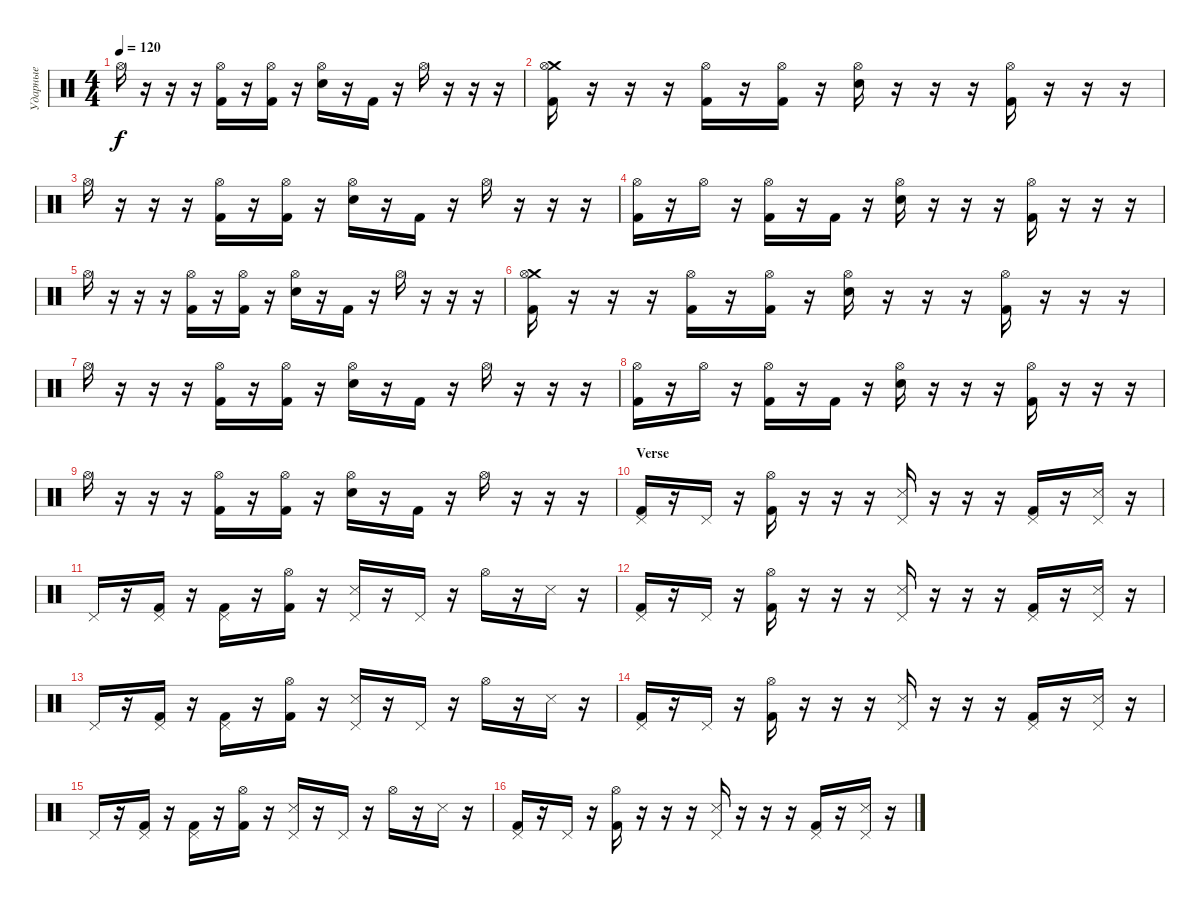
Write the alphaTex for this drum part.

\track ("Ударные" "Ударные") {instrument percussion}
\staff {score}
\articulation defaults
\ts (4 4)
\tempo 120
\clef neutral
\ks c "Hi-Hat (open)".16{dy f}
r.16 r.16 r.16 ("Hi-Hat (open)" "Kick (hit) 2").16 r.16 ("Hi-Hat (open)" "Kick (hit) 2").16 r.16 ("Hi-Hat (open)" "Electric Snare (hit)").16 r.16 "Kick (hit) 2".16 r.16 "Hi-Hat (open)".16 r.16 r.16 r.16 |
("Crash medium (hit)" "Hi-Hat (open)" "Kick (hit) 2").16 r.16 r.16 r.16 ("Hi-Hat (open)" "Kick (hit) 2").16 r.16 ("Hi-Hat (open)" "Kick (hit) 2").16 r.16 ("Hi-Hat (open)" "Electric Snare (hit)").16 r.16 r.16 r.16 ("Hi-Hat (open)" "Kick (hit) 2").16 r.16 r.16 r.16 |
"Hi-Hat (open)".16 r.16 r.16 r.16 ("Hi-Hat (open)" "Kick (hit) 2").16 r.16 ("Hi-Hat (open)" "Kick (hit) 2").16 r.16 ("Hi-Hat (open)" "Electric Snare (hit)").16 r.16 "Kick (hit) 2".16 r.16 "Hi-Hat (open)".16 r.16 r.16 r.16 |
("Hi-Hat (open)" "Kick (hit) 2").16 r.16 "Hi-Hat (open)".16 r.16 ("Hi-Hat (open)" "Kick (hit) 2").16 r.16 "Kick (hit) 2".16 r.16 ("Hi-Hat (open)" "Electric Snare (hit)").16 r.16 r.16 r.16 ("Hi-Hat (open)" "Kick (hit) 2").16 r.16 r.16 r.16 |
"Hi-Hat (open)".16 r.16 r.16 r.16 ("Hi-Hat (open)" "Kick (hit) 2").16 r.16 ("Hi-Hat (open)" "Kick (hit) 2").16 r.16 ("Hi-Hat (open)" "Electric Snare (hit)").16 r.16 "Kick (hit) 2".16 r.16 "Hi-Hat (open)".16 r.16 r.16 r.16 |
("Crash medium (hit)" "Hi-Hat (open)" "Kick (hit) 2").16 r.16 r.16 r.16 ("Hi-Hat (open)" "Kick (hit) 2").16 r.16 ("Hi-Hat (open)" "Kick (hit) 2").16 r.16 ("Hi-Hat (open)" "Electric Snare (hit)").16 r.16 r.16 r.16 ("Hi-Hat (open)" "Kick (hit) 2").16 r.16 r.16 r.16 |
"Hi-Hat (open)".16 r.16 r.16 r.16 ("Hi-Hat (open)" "Kick (hit) 2").16 r.16 ("Hi-Hat (open)" "Kick (hit) 2").16 r.16 ("Hi-Hat (open)" "Electric Snare (hit)").16 r.16 "Kick (hit) 2".16 r.16 "Hi-Hat (open)".16 r.16 r.16 r.16 |
("Hi-Hat (open)" "Kick (hit) 2").16 r.16 "Hi-Hat (open)".16 r.16 ("Hi-Hat (open)" "Kick (hit) 2").16 r.16 "Kick (hit) 2".16 r.16 ("Hi-Hat (open)" "Electric Snare (hit)").16 r.16 r.16 r.16 ("Hi-Hat (open)" "Kick (hit) 2").16 r.16 r.16 r.16 |
"Hi-Hat (open)".16 r.16 r.16 r.16 ("Hi-Hat (open)" "Kick (hit) 2").16 r.16 ("Hi-Hat (open)" "Kick (hit) 2").16 r.16 ("Hi-Hat (open)" "Electric Snare (hit)").16 r.16 "Kick (hit) 2".16 r.16 "Hi-Hat (open)".16 r.16 r.16 r.16 |
\section ("" "Verse")
("Pedal Hi-Hat (hit)" "Kick (hit) 2").16 r.16 "Pedal Hi-Hat (hit)".16 r.16 ("Hi-Hat (open)" "Kick (hit) 2").16 r.16 r.16 r.16 ("Pedal Hi-Hat (hit)" "Snare (side stick) 3").16 r.16 r.16 r.16 ("Pedal Hi-Hat (hit)" "Kick (hit) 2").16 r.16 ("Pedal Hi-Hat (hit)" "Snare (side stick) 3").16 r.16 |
"Pedal Hi-Hat (hit)".16 r.16 ("Pedal Hi-Hat (hit)" "Kick (hit) 2").16 r.16 ("Pedal Hi-Hat (hit)" "Kick (hit) 2").16 r.16 ("Hi-Hat (open)" "Kick (hit) 2").16 r.16 ("Pedal Hi-Hat (hit)" "Snare (side stick) 3").16 r.16 "Pedal Hi-Hat (hit)".16 r.16 "Hi-Hat (open)".16 r.16 "Snare (side stick) 3".16 r.16 |
("Pedal Hi-Hat (hit)" "Kick (hit) 2").16 r.16 "Pedal Hi-Hat (hit)".16 r.16 ("Hi-Hat (open)" "Kick (hit) 2").16 r.16 r.16 r.16 ("Pedal Hi-Hat (hit)" "Snare (side stick) 3").16 r.16 r.16 r.16 ("Pedal Hi-Hat (hit)" "Kick (hit) 2").16 r.16 ("Pedal Hi-Hat (hit)" "Snare (side stick) 3").16 r.16 |
"Pedal Hi-Hat (hit)".16 r.16 ("Pedal Hi-Hat (hit)" "Kick (hit) 2").16 r.16 ("Pedal Hi-Hat (hit)" "Kick (hit) 2").16 r.16 ("Hi-Hat (open)" "Kick (hit) 2").16 r.16 ("Pedal Hi-Hat (hit)" "Snare (side stick) 3").16 r.16 "Pedal Hi-Hat (hit)".16 r.16 "Hi-Hat (open)".16 r.16 "Snare (side stick) 3".16 r.16 |
("Pedal Hi-Hat (hit)" "Kick (hit) 2").16 r.16 "Pedal Hi-Hat (hit)".16 r.16 ("Hi-Hat (open)" "Kick (hit) 2").16 r.16 r.16 r.16 ("Pedal Hi-Hat (hit)" "Snare (side stick) 3").16 r.16 r.16 r.16 ("Pedal Hi-Hat (hit)" "Kick (hit) 2").16 r.16 ("Pedal Hi-Hat (hit)" "Snare (side stick) 3").16 r.16 |
"Pedal Hi-Hat (hit)".16 r.16 ("Pedal Hi-Hat (hit)" "Kick (hit) 2").16 r.16 ("Pedal Hi-Hat (hit)" "Kick (hit) 2").16 r.16 ("Hi-Hat (open)" "Kick (hit) 2").16 r.16 ("Pedal Hi-Hat (hit)" "Snare (side stick) 3").16 r.16 "Pedal Hi-Hat (hit)".16 r.16 "Hi-Hat (open)".16 r.16 "Snare (side stick) 3".16 r.16 |
("Pedal Hi-Hat (hit)" "Kick (hit) 2").16 r.16 "Pedal Hi-Hat (hit)".16 r.16 ("Hi-Hat (open)" "Kick (hit) 2").16 r.16 r.16 r.16 ("Pedal Hi-Hat (hit)" "Snare (side stick) 3").16 r.16 r.16 r.16 ("Pedal Hi-Hat (hit)" "Kick (hit) 2").16 r.16 ("Pedal Hi-Hat (hit)" "Snare (side stick) 3").16 r.16
